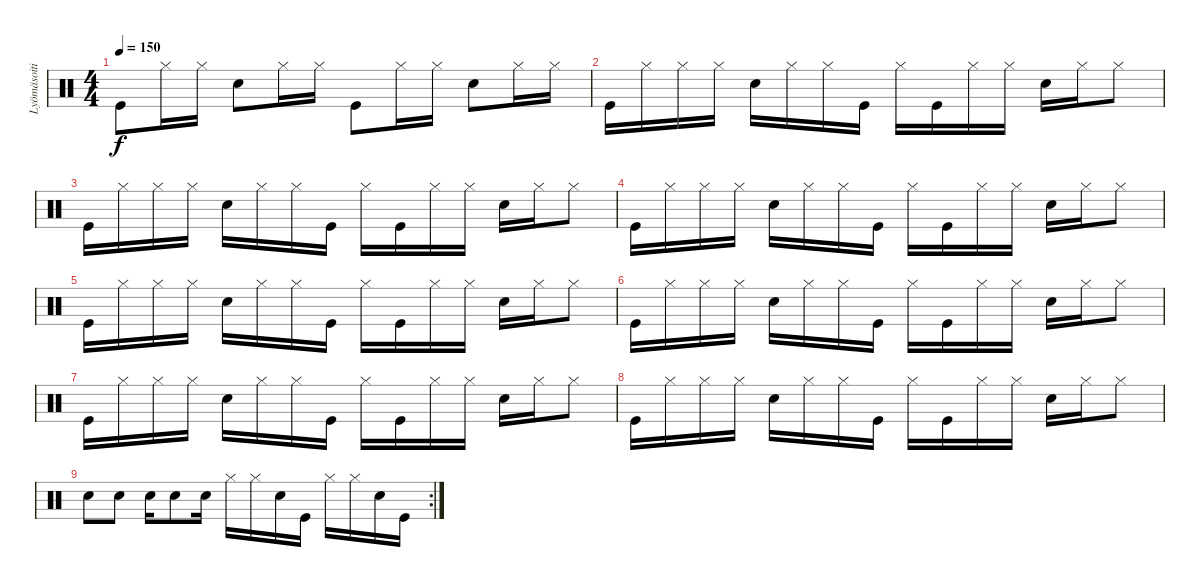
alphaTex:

\track ("Lyömäsoitin" "Lyömäsoiti") {instrument percussion}
\staff {score}
\articulation defaults
\ts (4 4)
\tempo 150
\clef neutral
\ks c "Kick (hit)".8{dy f} "Hi-Hat (closed)".16 "Hi-Hat (closed)".16 "Snare (hit) 2".8 "Hi-Hat (closed)".16 "Hi-Hat (closed)".16 "Kick (hit)".8 "Hi-Hat (closed)".16 "Hi-Hat (closed)".16 "Snare (hit) 2".8 "Hi-Hat (closed)".16 "Hi-Hat (closed)".16
|
"Kick (hit)".16 "Hi-Hat (closed)".16 "Hi-Hat (closed)".16 "Hi-Hat (closed)".16 "Snare (hit) 2".16 "Hi-Hat (closed)".16 "Hi-Hat (closed)".16 "Kick (hit)".16 "Hi-Hat (closed)".16 "Kick (hit)".16 "Hi-Hat (closed)".16 "Hi-Hat (closed)".16 "Snare (hit) 2".16 "Hi-Hat (closed)".16 "Hi-Hat (closed)".8 |
"Kick (hit)".16 "Hi-Hat (closed)".16 "Hi-Hat (closed)".16 "Hi-Hat (closed)".16 "Snare (hit) 2".16 "Hi-Hat (closed)".16 "Hi-Hat (closed)".16 "Kick (hit)".16 "Hi-Hat (closed)".16 "Kick (hit)".16 "Hi-Hat (closed)".16 "Hi-Hat (closed)".16 "Snare (hit) 2".16 "Hi-Hat (closed)".16 "Hi-Hat (closed)".8 |
"Kick (hit)".16 "Hi-Hat (closed)".16 "Hi-Hat (closed)".16 "Hi-Hat (closed)".16 "Snare (hit) 2".16 "Hi-Hat (closed)".16 "Hi-Hat (closed)".16 "Kick (hit)".16 "Hi-Hat (closed)".16 "Kick (hit)".16 "Hi-Hat (closed)".16 "Hi-Hat (closed)".16 "Snare (hit) 2".16 "Hi-Hat (closed)".16 "Hi-Hat (closed)".8 |
"Kick (hit)".16 "Hi-Hat (closed)".16 "Hi-Hat (closed)".16 "Hi-Hat (closed)".16 "Snare (hit) 2".16 "Hi-Hat (closed)".16 "Hi-Hat (closed)".16 "Kick (hit)".16 "Hi-Hat (closed)".16 "Kick (hit)".16 "Hi-Hat (closed)".16 "Hi-Hat (closed)".16 "Snare (hit) 2".16 "Hi-Hat (closed)".16 "Hi-Hat (closed)".8 |
"Kick (hit)".16 "Hi-Hat (closed)".16 "Hi-Hat (closed)".16 "Hi-Hat (closed)".16 "Snare (hit) 2".16 "Hi-Hat (closed)".16 "Hi-Hat (closed)".16 "Kick (hit)".16 "Hi-Hat (closed)".16 "Kick (hit)".16 "Hi-Hat (closed)".16 "Hi-Hat (closed)".16 "Snare (hit) 2".16 "Hi-Hat (closed)".16 "Hi-Hat (closed)".8 |
"Kick (hit)".16 "Hi-Hat (closed)".16 "Hi-Hat (closed)".16 "Hi-Hat (closed)".16 "Snare (hit) 2".16 "Hi-Hat (closed)".16 "Hi-Hat (closed)".16 "Kick (hit)".16 "Hi-Hat (closed)".16 "Kick (hit)".16 "Hi-Hat (closed)".16 "Hi-Hat (closed)".16 "Snare (hit) 2".16 "Hi-Hat (closed)".16 "Hi-Hat (closed)".8 |
"Kick (hit)".16 "Hi-Hat (closed)".16 "Hi-Hat (closed)".16 "Hi-Hat (closed)".16 "Snare (hit) 2".16 "Hi-Hat (closed)".16 "Hi-Hat (closed)".16 "Kick (hit)".16 "Hi-Hat (closed)".16 "Kick (hit)".16 "Hi-Hat (closed)".16 "Hi-Hat (closed)".16 "Snare (hit) 2".16 "Hi-Hat (closed)".16 "Hi-Hat (closed)".8 |
\rc 2 "Snare (hit) 2".8 "Snare (hit) 2".8 "Snare (hit) 2".16 "Snare (hit) 2".8 "Snare (hit) 2".16 "Hi-Hat (closed)".16 "Hi-Hat (closed)".16 "Snare (hit) 2".16 "Kick (hit)".16 "Hi-Hat (closed)".16 "Hi-Hat (closed)".16 "Snare (hit) 2".16 "Kick (hit)".16
